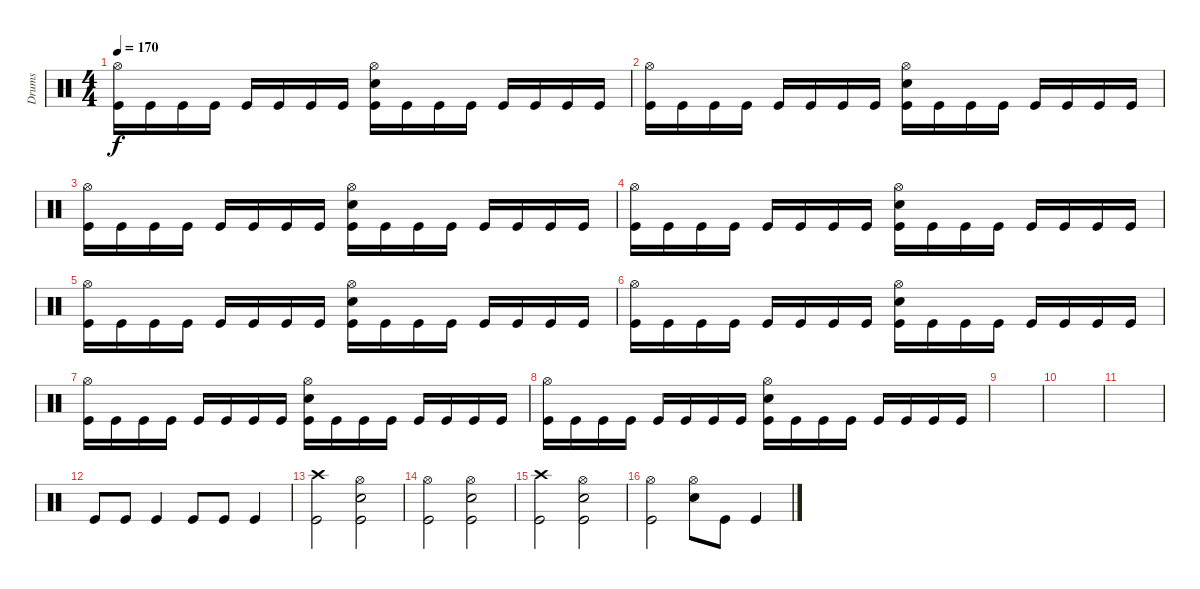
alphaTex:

\track ("Drums" "Drums") {instrument percussion}
\staff {score}
\articulation defaults
\ts (4 4)
\tempo 170
\clef neutral
\ks c
("Hi-Hat (open)" "Kick (hit)").16{dy f} "Kick (hit)".16 "Kick (hit)".16 "Kick (hit)".16 "Kick (hit)".16 "Kick (hit)".16 "Kick (hit)".16 "Kick (hit)".16 ("Hi-Hat (open)" "Snare (hit) 2" "Kick (hit)").16 "Kick (hit)".16 "Kick (hit)".16 "Kick (hit)".16 "Kick (hit)".16 "Kick (hit)".16 "Kick (hit)".16 "Kick (hit)".16 |
("Hi-Hat (open)" "Kick (hit)").16 "Kick (hit)".16 "Kick (hit)".16 "Kick (hit)".16 "Kick (hit)".16 "Kick (hit)".16 "Kick (hit)".16 "Kick (hit)".16 ("Hi-Hat (open)" "Snare (hit) 2" "Kick (hit)").16 "Kick (hit)".16 "Kick (hit)".16 "Kick (hit)".16 "Kick (hit)".16 "Kick (hit)".16 "Kick (hit)".16 "Kick (hit)".16 |
("Hi-Hat (open)" "Kick (hit)").16 "Kick (hit)".16 "Kick (hit)".16 "Kick (hit)".16 "Kick (hit)".16 "Kick (hit)".16 "Kick (hit)".16 "Kick (hit)".16 ("Hi-Hat (open)" "Snare (hit) 2" "Kick (hit)").16 "Kick (hit)".16 "Kick (hit)".16 "Kick (hit)".16 "Kick (hit)".16 "Kick (hit)".16 "Kick (hit)".16 "Kick (hit)".16 |
("Hi-Hat (open)" "Kick (hit)").16 "Kick (hit)".16 "Kick (hit)".16 "Kick (hit)".16 "Kick (hit)".16 "Kick (hit)".16 "Kick (hit)".16 "Kick (hit)".16 ("Hi-Hat (open)" "Snare (hit) 2" "Kick (hit)").16 "Kick (hit)".16 "Kick (hit)".16 "Kick (hit)".16 "Kick (hit)".16 "Kick (hit)".16 "Kick (hit)".16 "Kick (hit)".16 |
("Hi-Hat (open)" "Kick (hit)").16 "Kick (hit)".16 "Kick (hit)".16 "Kick (hit)".16 "Kick (hit)".16 "Kick (hit)".16 "Kick (hit)".16 "Kick (hit)".16 ("Hi-Hat (open)" "Snare (hit) 2" "Kick (hit)").16 "Kick (hit)".16 "Kick (hit)".16 "Kick (hit)".16 "Kick (hit)".16 "Kick (hit)".16 "Kick (hit)".16 "Kick (hit)".16 |
("Hi-Hat (open)" "Kick (hit)").16 "Kick (hit)".16 "Kick (hit)".16 "Kick (hit)".16 "Kick (hit)".16 "Kick (hit)".16 "Kick (hit)".16 "Kick (hit)".16 ("Hi-Hat (open)" "Snare (hit) 2" "Kick (hit)").16 "Kick (hit)".16 "Kick (hit)".16 "Kick (hit)".16 "Kick (hit)".16 "Kick (hit)".16 "Kick (hit)".16 "Kick (hit)".16 |
("Hi-Hat (open)" "Kick (hit)").16 "Kick (hit)".16 "Kick (hit)".16 "Kick (hit)".16 "Kick (hit)".16 "Kick (hit)".16 "Kick (hit)".16 "Kick (hit)".16 ("Hi-Hat (open)" "Snare (hit) 2" "Kick (hit)").16 "Kick (hit)".16 "Kick (hit)".16 "Kick (hit)".16 "Kick (hit)".16 "Kick (hit)".16 "Kick (hit)".16 "Kick (hit)".16 |
("Hi-Hat (open)" "Kick (hit)").16 "Kick (hit)".16 "Kick (hit)".16 "Kick (hit)".16 "Kick (hit)".16 "Kick (hit)".16 "Kick (hit)".16 "Kick (hit)".16 ("Hi-Hat (open)" "Snare (hit) 2" "Kick (hit)").16 "Kick (hit)".16 "Kick (hit)".16 "Kick (hit)".16 "Kick (hit)".16 "Kick (hit)".16 "Kick (hit)".16 "Kick (hit)".16 |
|
|
|
"Kick (hit)".8 "Kick (hit)".8 "Kick (hit)".4 "Kick (hit)".8 "Kick (hit)".8 "Kick (hit)".4 |
("Crash high (hit)" "Kick (hit)").2 ("Hi-Hat (open)" "Snare (hit) 2" "Kick (hit)").2 |
("Hi-Hat (open)" "Kick (hit)").2 ("Hi-Hat (open)" "Snare (hit) 2" "Kick (hit)").2 |
("Crash high (hit)" "Kick (hit)").2 ("Hi-Hat (open)" "Snare (hit) 2" "Kick (hit)").2 |
("Hi-Hat (open)" "Kick (hit)").2 ("Hi-Hat (open)" "Snare (hit) 2").8 "Kick (hit)".8 "Kick (hit)".4
